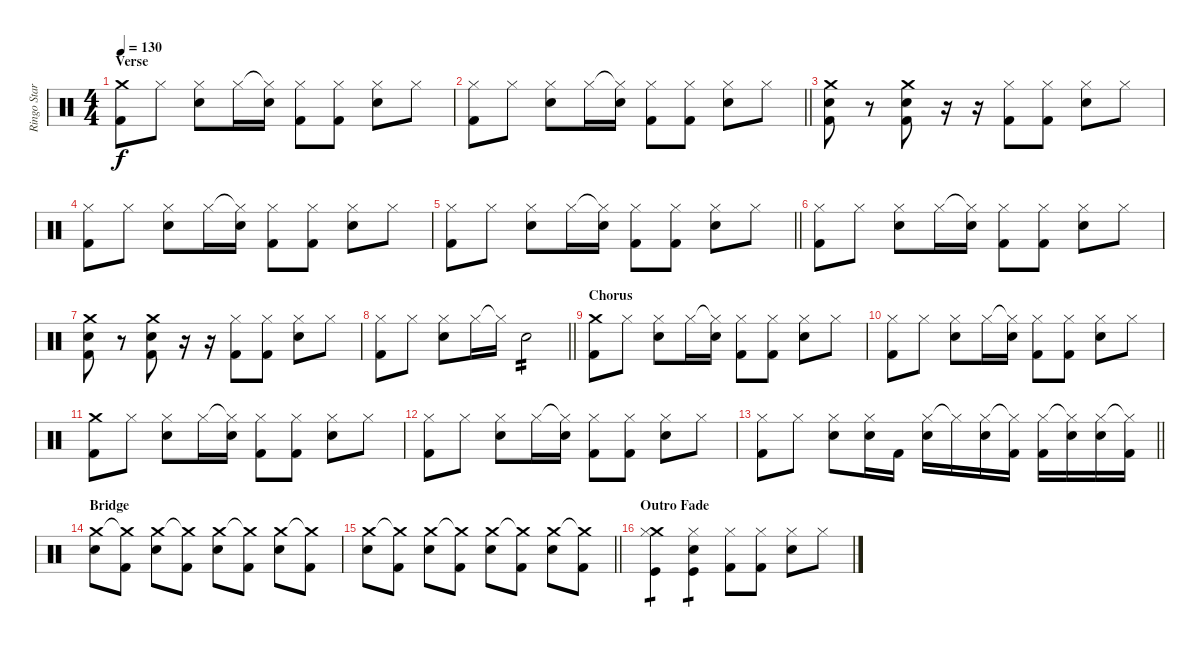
\track ("Ringo Starr" "Ringo Star") {instrument percussion}
\staff {score}
\articulation defaults
\ts (4 4)
\section ("" "Verse")
\tempo 130
\clef neutral
\ks c
("Crash medium (hit)" "Kick (hit) 2").8{dy f} "Hi-Hat (closed)".8 ("Hi-Hat (closed)" "Snare (hit) 2").8 "Hi-Hat (closed)".16 ("Hi-Hat (closed)"{t} "Snare (hit) 2").16 ("Hi-Hat (closed)" "Kick (hit) 2").8 ("Hi-Hat (closed)" "Kick (hit) 2").8 ("Hi-Hat (closed)" "Snare (hit) 2").8 "Hi-Hat (closed)".8 |
\barLineRight lightlight
("Hi-Hat (closed)" "Kick (hit) 2").8 "Hi-Hat (closed)".8 ("Hi-Hat (closed)" "Snare (hit) 2").8 "Hi-Hat (closed)".16 ("Hi-Hat (closed)"{t} "Snare (hit) 2").16 ("Hi-Hat (closed)" "Kick (hit) 2").8 ("Hi-Hat (closed)" "Kick (hit) 2").8 ("Hi-Hat (closed)" "Snare (hit) 2").8 "Hi-Hat (closed)".8 |
("Crash medium (hit)" "Snare (hit) 2" "Kick (hit) 2").8 r.8 ("Crash medium (hit)" "Snare (hit) 2" "Kick (hit) 2").8 r.16 r.16 ("Hi-Hat (closed)" "Kick (hit) 2").8 ("Hi-Hat (closed)" "Kick (hit) 2").8 ("Hi-Hat (closed)" "Snare (hit) 2").8 "Hi-Hat (closed)".8 |
("Hi-Hat (closed)" "Kick (hit) 2").8 "Hi-Hat (closed)".8 ("Hi-Hat (closed)" "Snare (hit) 2").8 "Hi-Hat (closed)".16 ("Hi-Hat (closed)"{t} "Snare (hit) 2").16 ("Hi-Hat (closed)" "Kick (hit) 2").8 ("Hi-Hat (closed)" "Kick (hit) 2").8 ("Hi-Hat (closed)" "Snare (hit) 2").8 "Hi-Hat (closed)".8 |
\barLineRight lightlight
("Hi-Hat (closed)" "Kick (hit) 2").8 "Hi-Hat (closed)".8 ("Hi-Hat (closed)" "Snare (hit) 2").8 "Hi-Hat (closed)".16 ("Hi-Hat (closed)"{t} "Snare (hit) 2").16 ("Hi-Hat (closed)" "Kick (hit) 2").8 ("Hi-Hat (closed)" "Kick (hit) 2").8 ("Hi-Hat (closed)" "Snare (hit) 2").8 "Hi-Hat (closed)".8 |
("Hi-Hat (closed)" "Kick (hit) 2").8 "Hi-Hat (closed)".8 ("Hi-Hat (closed)" "Snare (hit) 2").8 "Hi-Hat (closed)".16 ("Hi-Hat (closed)"{t} "Snare (hit) 2").16 ("Hi-Hat (closed)" "Kick (hit) 2").8 ("Hi-Hat (closed)" "Kick (hit) 2").8 ("Hi-Hat (closed)" "Snare (hit) 2").8 "Hi-Hat (closed)".8 |
("Crash medium (hit)" "Snare (hit) 2" "Kick (hit) 2").8 r.8 ("Crash medium (hit)" "Snare (hit) 2" "Kick (hit) 2").8 r.16 r.16 ("Hi-Hat (closed)" "Kick (hit) 2").8 ("Hi-Hat (closed)" "Kick (hit) 2").8 ("Hi-Hat (closed)" "Snare (hit) 2").8 "Hi-Hat (closed)".8 |
\barLineRight lightlight
("Hi-Hat (closed)" "Kick (hit) 2").8 "Hi-Hat (closed)".8 ("Hi-Hat (closed)" "Snare (hit) 2").8 "Hi-Hat (closed)".16 "Hi-Hat (closed)"{t}.16 "Snare (hit) 2".2{tp 2} |
\section ("" "Chorus")
("Crash medium (hit)" "Kick (hit) 2").8 "Hi-Hat (closed)".8 ("Hi-Hat (closed)" "Snare (hit) 2").8 "Hi-Hat (closed)".16 ("Hi-Hat (closed)"{t} "Snare (hit) 2").16 ("Hi-Hat (closed)" "Kick (hit) 2").8 ("Hi-Hat (closed)" "Kick (hit) 2").8 ("Hi-Hat (closed)" "Snare (hit) 2").8 "Hi-Hat (closed)".8 |
("Hi-Hat (closed)" "Kick (hit) 2").8 "Hi-Hat (closed)".8 ("Hi-Hat (closed)" "Snare (hit) 2").8 "Hi-Hat (closed)".16 ("Hi-Hat (closed)"{t} "Snare (hit) 2").16 ("Hi-Hat (closed)" "Kick (hit) 2").8 ("Hi-Hat (closed)" "Kick (hit) 2").8 ("Hi-Hat (closed)" "Snare (hit) 2").8 "Hi-Hat (closed)".8 |
("Crash medium (hit)" "Kick (hit) 2").8 "Hi-Hat (closed)".8 ("Hi-Hat (closed)" "Snare (hit) 2").8 "Hi-Hat (closed)".16 ("Hi-Hat (closed)"{t} "Snare (hit) 2").16 ("Hi-Hat (closed)" "Kick (hit) 2").8 ("Hi-Hat (closed)" "Kick (hit) 2").8 ("Hi-Hat (closed)" "Snare (hit) 2").8 "Hi-Hat (closed)".8 |
("Hi-Hat (closed)" "Kick (hit) 2").8 "Hi-Hat (closed)".8 ("Hi-Hat (closed)" "Snare (hit) 2").8 "Hi-Hat (closed)".16 ("Hi-Hat (closed)"{t} "Snare (hit) 2").16 ("Hi-Hat (closed)" "Kick (hit) 2").8 ("Hi-Hat (closed)" "Kick (hit) 2").8 ("Hi-Hat (closed)" "Snare (hit) 2").8 "Hi-Hat (closed)".8 |
\barLineRight lightlight
("Hi-Hat (closed)" "Kick (hit) 2").8 "Hi-Hat (closed)".8 ("Hi-Hat (closed)" "Snare (hit) 2").8 ("Hi-Hat (closed)" "Snare (hit) 2").16 "Kick (hit) 2".16 ("Hi-Hat (closed)" "Snare (hit) 2").16 "Hi-Hat (closed)"{t}.16 ("Hi-Hat (closed)" "Snare (hit) 2").16 ("Hi-Hat (closed)"{t} "Kick (hit) 2").16 ("Hi-Hat (closed)" "Kick (hit) 2").16 ("Hi-Hat (closed)"{t} "Snare (hit) 2").16 ("Hi-Hat (closed)" "Snare (hit) 2").16 ("Hi-Hat (closed)"{t} "Kick (hit) 2").16 |
\section ("" "Bridge")
("Crash medium (hit)" "Snare (hit) 2").8 ("Crash medium (hit)"{t} "Kick (hit) 2").8 ("Crash medium (hit)" "Snare (hit) 2").8 ("Crash medium (hit)"{t} "Kick (hit) 2").8 ("Crash medium (hit)" "Snare (hit) 2").8 ("Crash medium (hit)"{t} "Kick (hit) 2").8 ("Crash medium (hit)" "Snare (hit) 2").8 ("Crash medium (hit)"{t} "Kick (hit) 2").8 |
\barLineRight lightlight
("Crash medium (hit)" "Snare (hit) 2").8 ("Crash medium (hit)"{t} "Kick (hit) 2").8 ("Crash medium (hit)" "Snare (hit) 2").8 ("Crash medium (hit)"{t} "Kick (hit) 2").8 ("Crash medium (hit)" "Snare (hit) 2").8 ("Crash medium (hit)"{t} "Kick (hit) 2").8 ("Crash medium (hit)" "Snare (hit) 2").8 ("Crash medium (hit)"{t} "Kick (hit) 2").8 |
\section ("" "Outro Fade")
("Crash medium (hit)" "Hi-Hat (closed)" "Kick (hit)").4{tp 1} ("Hi-Hat (closed)" "Snare (hit) 2" "Kick (hit)").4{tp 1} ("Hi-Hat (closed)" "Kick (hit) 2").8 ("Hi-Hat (closed)" "Kick (hit) 2").8 ("Hi-Hat (closed)" "Snare (hit) 2").8 "Hi-Hat (closed)".8
